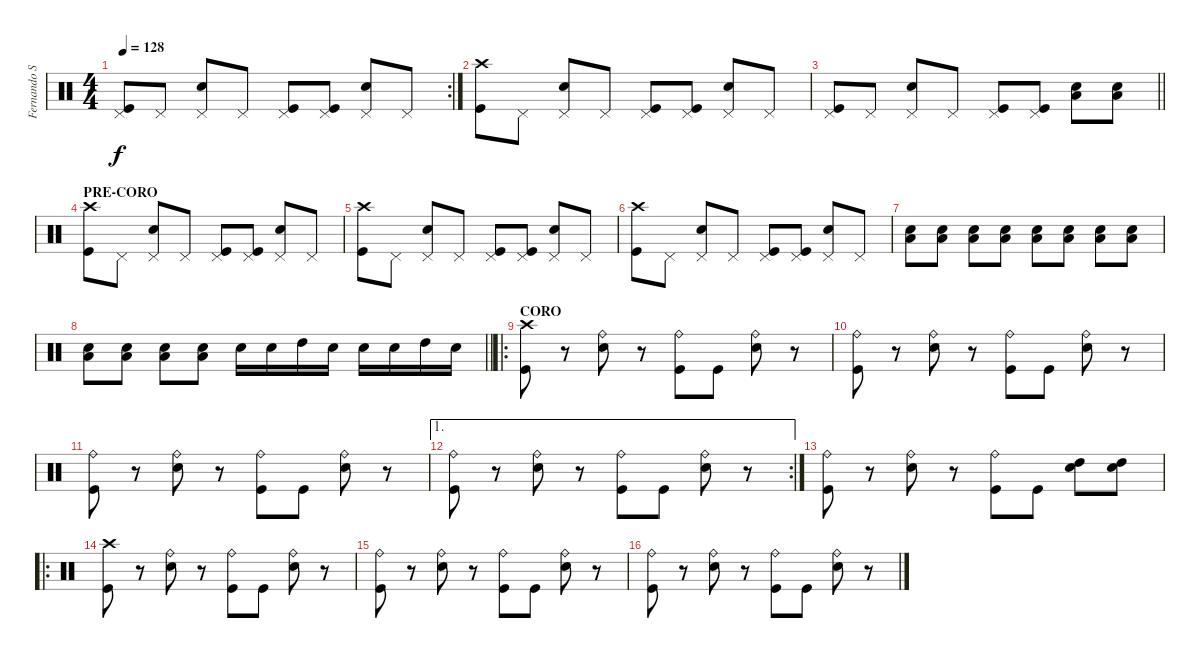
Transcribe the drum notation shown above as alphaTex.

\track ("Fernando Scarcella" "Fernando S") {instrument percussion}
\staff {score}
\articulation defaults
\rc 2
\ts (4 4)
\tempo 128
\clef neutral
\ks c
("Kick (hit)" "Pedal Hi-Hat (hit)").8{dy f} "Pedal Hi-Hat (hit)".8 ("Snare (hit) 2" "Pedal Hi-Hat (hit)").8 "Pedal Hi-Hat (hit)".8 ("Kick (hit)" "Pedal Hi-Hat (hit)").8 ("Kick (hit)" "Pedal Hi-Hat (hit)").8 ("Snare (hit) 2" "Pedal Hi-Hat (hit)").8 "Pedal Hi-Hat (hit)".8 |
("Kick (hit)" "Crash high (hit)").8 "Pedal Hi-Hat (hit)".8 ("Snare (hit) 2" "Pedal Hi-Hat (hit)").8 "Pedal Hi-Hat (hit)".8 ("Kick (hit)" "Pedal Hi-Hat (hit)").8 ("Kick (hit)" "Pedal Hi-Hat (hit)").8 ("Snare (hit) 2" "Pedal Hi-Hat (hit)").8 "Pedal Hi-Hat (hit)".8 |
\barLineRight lightlight
("Kick (hit)" "Pedal Hi-Hat (hit)").8 "Pedal Hi-Hat (hit)".8 ("Snare (hit) 2" "Pedal Hi-Hat (hit)").8 "Pedal Hi-Hat (hit)".8 ("Kick (hit)" "Pedal Hi-Hat (hit)").8 ("Kick (hit)" "Pedal Hi-Hat (hit)").8 ("Low Floor Tom (hit)" "Snare (hit) 2").8 ("Low Floor Tom (hit)" "Snare (hit) 2").8 |
\section ("" "PRE-CORO")
("Kick (hit)" "Crash high (hit)").8 "Pedal Hi-Hat (hit)".8 ("Snare (hit) 2" "Pedal Hi-Hat (hit)").8 "Pedal Hi-Hat (hit)".8 ("Kick (hit)" "Pedal Hi-Hat (hit)").8 ("Kick (hit)" "Pedal Hi-Hat (hit)").8 ("Snare (hit) 2" "Pedal Hi-Hat (hit)").8 "Pedal Hi-Hat (hit)".8 |
("Kick (hit)" "Crash high (hit)").8 "Pedal Hi-Hat (hit)".8 ("Snare (hit) 2" "Pedal Hi-Hat (hit)").8 "Pedal Hi-Hat (hit)".8 ("Kick (hit)" "Pedal Hi-Hat (hit)").8 ("Kick (hit)" "Pedal Hi-Hat (hit)").8 ("Snare (hit) 2" "Pedal Hi-Hat (hit)").8 "Pedal Hi-Hat (hit)".8 |
("Kick (hit)" "Crash high (hit)").8 "Pedal Hi-Hat (hit)".8 ("Snare (hit) 2" "Pedal Hi-Hat (hit)").8 "Pedal Hi-Hat (hit)".8 ("Kick (hit)" "Pedal Hi-Hat (hit)").8 ("Kick (hit)" "Pedal Hi-Hat (hit)").8 ("Snare (hit) 2" "Pedal Hi-Hat (hit)").8 "Pedal Hi-Hat (hit)".8 |
("Low Floor Tom (hit)" "Snare (hit) 2").8 ("Low Floor Tom (hit)" "Snare (hit) 2").8 ("Low Floor Tom (hit)" "Snare (hit) 2").8 ("Low Floor Tom (hit)" "Snare (hit) 2").8 ("Low Floor Tom (hit)" "Snare (hit) 2").8 ("Low Floor Tom (hit)" "Snare (hit) 2").8 ("Low Floor Tom (hit)" "Snare (hit) 2").8 ("Low Floor Tom (hit)" "Snare (hit) 2").8 |
\barLineRight lightlight
("Low Floor Tom (hit)" "Snare (hit) 2").8 ("Low Floor Tom (hit)" "Snare (hit) 2").8 ("Low Floor Tom (hit)" "Snare (hit) 2").8 ("Low Floor Tom (hit)" "Snare (hit) 2").8 "Snare (hit) 2".16 "Snare (hit) 2".16 "High Tom (hit)".16 "Snare (hit) 2".16 "Snare (hit) 2".16 "Snare (hit) 2".16 "High Tom (hit)".16 "Snare (hit) 2".16 |
\ro
\section ("" "CORO")
("Kick (hit)" "Crash high (hit)").8 r.8 ("Snare (hit) 2" "Ride (bell)").8 r.8 ("Kick (hit)" "Ride (bell)").8 "Kick (hit)".8 ("Snare (hit) 2" "Ride (bell)").8 r.8 |
("Kick (hit)" "Ride (bell)").8 r.8 ("Snare (hit) 2" "Ride (bell)").8 r.8 ("Kick (hit)" "Ride (bell)").8 "Kick (hit)".8 ("Snare (hit) 2" "Ride (bell)").8 r.8 |
("Kick (hit)" "Ride (bell)").8 r.8 ("Snare (hit) 2" "Ride (bell)").8 r.8 ("Kick (hit)" "Ride (bell)").8 "Kick (hit)".8 ("Snare (hit) 2" "Ride (bell)").8 r.8 |
\ae 1
\rc 2
("Kick (hit)" "Ride (bell)").8 r.8 ("Snare (hit) 2" "Ride (bell)").8 r.8 ("Kick (hit)" "Ride (bell)").8 "Kick (hit)".8 ("Snare (hit) 2" "Ride (bell)").8 r.8 |
("Kick (hit)" "Ride (bell)").8 r.8 ("Snare (hit) 2" "Ride (bell)").8 r.8 ("Kick (hit)" "Ride (bell)").8 "Kick (hit)".8 ("High Tom (hit)" "Snare (hit) 2").8 ("High Tom (hit)" "Snare (hit) 2").8 |
\ro
("Kick (hit)" "Crash high (hit)").8 r.8 ("Snare (hit) 2" "Ride (bell)").8 r.8 ("Kick (hit)" "Ride (bell)").8 "Kick (hit)".8 ("Snare (hit) 2" "Ride (bell)").8 r.8 |
("Kick (hit)" "Ride (bell)").8 r.8 ("Snare (hit) 2" "Ride (bell)").8 r.8 ("Kick (hit)" "Ride (bell)").8 "Kick (hit)".8 ("Snare (hit) 2" "Ride (bell)").8 r.8 |
("Kick (hit)" "Ride (bell)").8 r.8 ("Snare (hit) 2" "Ride (bell)").8 r.8 ("Kick (hit)" "Ride (bell)").8 "Kick (hit)".8 ("Snare (hit) 2" "Ride (bell)").8 r.8
